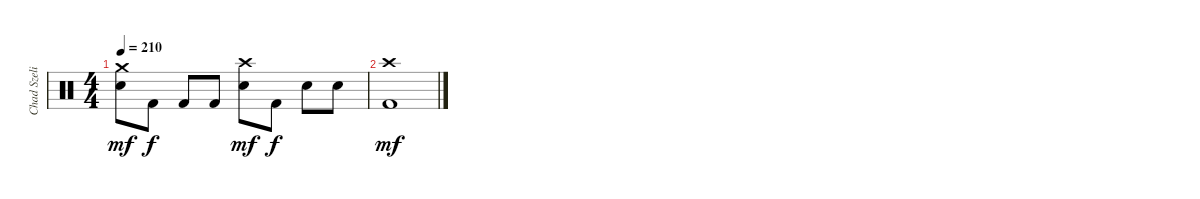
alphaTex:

\track ("Chad Szeliga" "Chad Szeli") {instrument percussion}
\staff {score}
\articulation defaults
\ts (4 4)
\tempo 210
\clef neutral
\ks c
("Snare (hit) 2" "Crash medium (hit)").8{dy mf} "Kick (hit) 2".8{dy f} "Kick (hit) 2".8 "Kick (hit) 2".8 ("Snare (hit) 2" "Crash high (hit)").8{dy mf} "Kick (hit) 2".8{dy f} "Snare (hit) 2".8 "Snare (hit) 2".8 |
("Kick (hit) 2" "Crash high (hit)").1{dy mf}
